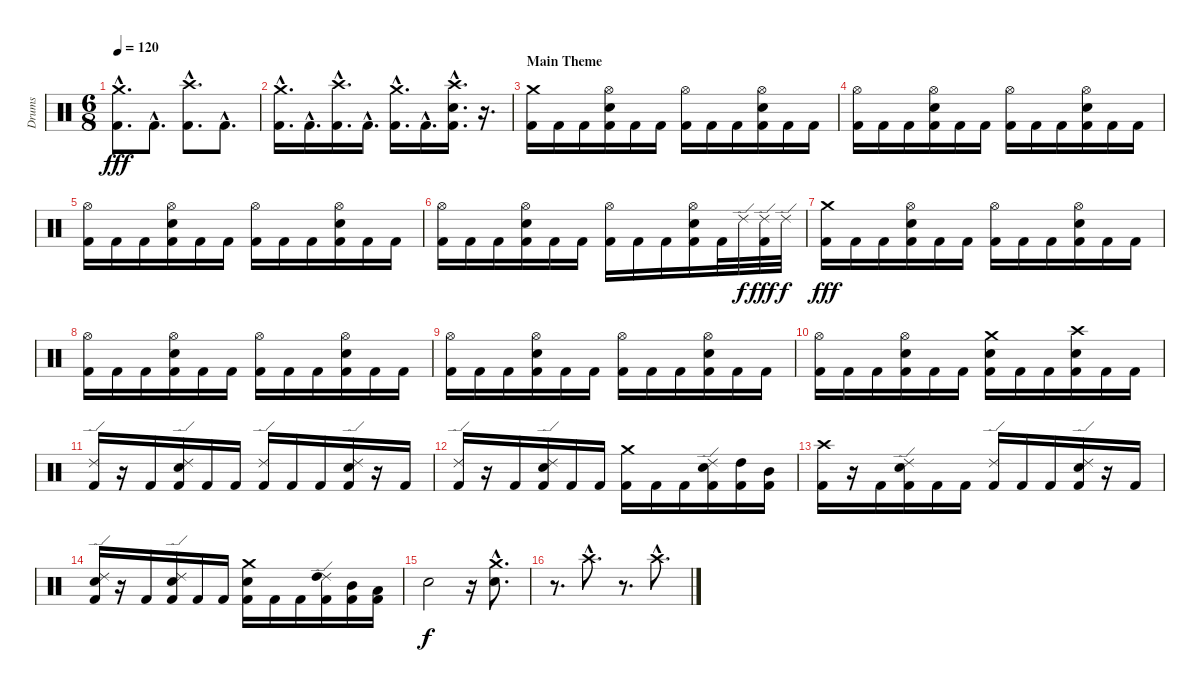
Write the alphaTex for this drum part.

\track ("Drums" "Drums") {instrument percussion}
\staff {score}
\articulation defaults
\ts (6 8)
\tempo 120
\clef neutral
\ks c
("Crash medium (hit)"{hac} "Kick (hit) 2"{hac}).8{d dy fff} "Kick (hit) 2"{hac}.8{d} ("Crash high (hit)"{hac} "Kick (hit) 2"{hac}).8{d} "Kick (hit) 2"{hac}.8{d} |
("Crash medium (hit)"{hac} "Kick (hit) 2"{hac}).16{d} "Kick (hit) 2"{hac}.16{d} ("Crash high (hit)"{hac} "Kick (hit) 2"{hac}).16{d} "Kick (hit) 2"{hac}.16{d} ("Crash medium (hit)"{hac} "Kick (hit) 2"{hac}).16{d} "Kick (hit) 2"{hac}.16{d} ("Crash high (hit)"{hac} "Snare (hit) 2"{hac} "Kick (hit) 2"{hac}).16{d} r.16{d} |
\section ("" "Main Theme")
("Crash medium (hit)" "Kick (hit) 2").16 "Kick (hit) 2".16 "Kick (hit) 2".16 ("Hi-Hat (open)" "Snare (hit) 2" "Kick (hit) 2").16 "Kick (hit) 2".16 "Kick (hit) 2".16 ("Hi-Hat (open)" "Kick (hit) 2").16 "Kick (hit) 2".16 "Kick (hit) 2".16 ("Hi-Hat (open)" "Snare (hit) 2" "Kick (hit) 2").16 "Kick (hit) 2".16 "Kick (hit) 2".16 |
("Hi-Hat (open)" "Kick (hit) 2").16 "Kick (hit) 2".16 "Kick (hit) 2".16 ("Hi-Hat (open)" "Snare (hit) 2" "Kick (hit) 2").16 "Kick (hit) 2".16 "Kick (hit) 2".16 ("Hi-Hat (open)" "Kick (hit) 2").16 "Kick (hit) 2".16 "Kick (hit) 2".16 ("Hi-Hat (open)" "Snare (hit) 2" "Kick (hit) 2").16 "Kick (hit) 2".16 "Kick (hit) 2".16 |
("Hi-Hat (open)" "Kick (hit) 2").16 "Kick (hit) 2".16 "Kick (hit) 2".16 ("Hi-Hat (open)" "Snare (hit) 2" "Kick (hit) 2").16 "Kick (hit) 2".16 "Kick (hit) 2".16 ("Hi-Hat (open)" "Kick (hit) 2").16 "Kick (hit) 2".16 "Kick (hit) 2".16 ("Hi-Hat (open)" "Snare (hit) 2" "Kick (hit) 2").16 "Kick (hit) 2".16 "Kick (hit) 2".16 |
("Hi-Hat (open)" "Kick (hit) 2").16 "Kick (hit) 2".16 "Kick (hit) 2".16 ("Hi-Hat (open)" "Snare (hit) 2" "Kick (hit) 2").16 "Kick (hit) 2".16 "Kick (hit) 2".16 ("Hi-Hat (open)" "Kick (hit) 2").16 "Kick (hit) 2".16 "Kick (hit) 2".16 ("Hi-Hat (open)" "Snare (hit) 2" "Kick (hit) 2").16 "Kick (hit) 2".32 "Ride (edge) 2".32{dy f} ("Ride (edge) 2" "Kick (hit) 2").32{dy fff} "Ride (edge) 2".32{dy f} |
("Crash medium (hit)" "Kick (hit) 2").16{dy fff} "Kick (hit) 2".16 "Kick (hit) 2".16 ("Hi-Hat (open)" "Snare (hit) 2" "Kick (hit) 2").16 "Kick (hit) 2".16 "Kick (hit) 2".16 ("Hi-Hat (open)" "Kick (hit) 2").16 "Kick (hit) 2".16 "Kick (hit) 2".16 ("Hi-Hat (open)" "Snare (hit) 2" "Kick (hit) 2").16 "Kick (hit) 2".16 "Kick (hit) 2".16 |
("Hi-Hat (open)" "Kick (hit) 2").16 "Kick (hit) 2".16 "Kick (hit) 2".16 ("Hi-Hat (open)" "Snare (hit) 2" "Kick (hit) 2").16 "Kick (hit) 2".16 "Kick (hit) 2".16 ("Hi-Hat (open)" "Kick (hit) 2").16 "Kick (hit) 2".16 "Kick (hit) 2".16 ("Hi-Hat (open)" "Snare (hit) 2" "Kick (hit) 2").16 "Kick (hit) 2".16 "Kick (hit) 2".16 |
("Hi-Hat (open)" "Kick (hit) 2").16 "Kick (hit) 2".16 "Kick (hit) 2".16 ("Hi-Hat (open)" "Snare (hit) 2" "Kick (hit) 2").16 "Kick (hit) 2".16 "Kick (hit) 2".16 ("Hi-Hat (open)" "Kick (hit) 2").16 "Kick (hit) 2".16 "Kick (hit) 2".16 ("Hi-Hat (open)" "Snare (hit) 2" "Kick (hit) 2").16 "Kick (hit) 2".16 "Kick (hit) 2".16 |
("Hi-Hat (open)" "Kick (hit) 2").16 "Kick (hit) 2".16 "Kick (hit) 2".16 ("Hi-Hat (open)" "Snare (hit) 2" "Kick (hit) 2").16 "Kick (hit) 2".16 "Kick (hit) 2".16 ("Crash medium (hit)" "Snare (hit) 2" "Kick (hit) 2").16 "Kick (hit) 2".16 "Kick (hit) 2".16 ("Crash high (hit)" "Snare (hit) 2" "Kick (hit) 2").16 "Kick (hit) 2".16 "Kick (hit) 2".16 |
("Ride (edge) 2" "Kick (hit) 2").16 r.16 "Kick (hit) 2".16 ("Ride (edge) 2" "Snare (hit) 2" "Kick (hit) 2").16 "Kick (hit) 2".16 "Kick (hit) 2".16 ("Ride (edge) 2" "Kick (hit) 2").16 "Kick (hit) 2".16 "Kick (hit) 2".16 ("Ride (edge) 2" "Snare (hit) 2" "Kick (hit) 2").16 r.16 "Kick (hit) 2".16 |
("Ride (edge) 2" "Kick (hit) 2").16 r.16 "Kick (hit) 2".16 ("Ride (edge) 2" "Snare (hit) 2" "Kick (hit) 2").16 "Kick (hit) 2".16 "Kick (hit) 2".16 ("Crash medium (hit)" "Kick (hit) 2").16 "Kick (hit) 2".16 "Kick (hit) 2".16 ("Ride (edge) 2" "Snare (hit) 2" "Kick (hit) 2").16 ("High Tom (hit)" "Kick (hit) 2").16 ("Mid Tom (hit)" "Kick (hit) 2").16 |
("Crash high (hit)" "Kick (hit) 2").16 r.16 "Kick (hit) 2".16 ("Ride (edge) 2" "Snare (hit) 2" "Kick (hit) 2").16 "Kick (hit) 2".16 "Kick (hit) 2".16 ("Ride (edge) 2" "Kick (hit) 2").16 "Kick (hit) 2".16 "Kick (hit) 2".16 ("Ride (edge) 2" "Snare (hit) 2" "Kick (hit) 2").16 r.16 "Kick (hit) 2".16 |
("Ride (edge) 2" "Snare (hit) 2" "Kick (hit) 2").16 r.16 "Kick (hit) 2".16 ("Ride (edge) 2" "Snare (hit) 2" "Kick (hit) 2").16 "Kick (hit) 2".16 "Kick (hit) 2".16 ("Crash medium (hit)" "Snare (hit) 2" "Kick (hit) 2").16 "Kick (hit) 2".16 "Kick (hit) 2".16 ("Ride (edge) 2" "High Tom (hit)" "Kick (hit) 2").16 ("Mid Tom (hit)" "Kick (hit) 2").16 ("Low Tom (hit)" "Kick (hit) 2").16 |
"Snare (hit) 2".2{dy f} r.16 ("Crash medium (hit)"{hac} "Snare (hit) 2"{hac}).8{d} |
r.8{d} "Crash high (hit)"{hac}.8{d} r.8{d} "Crash high (hit)"{hac}.8{d}
